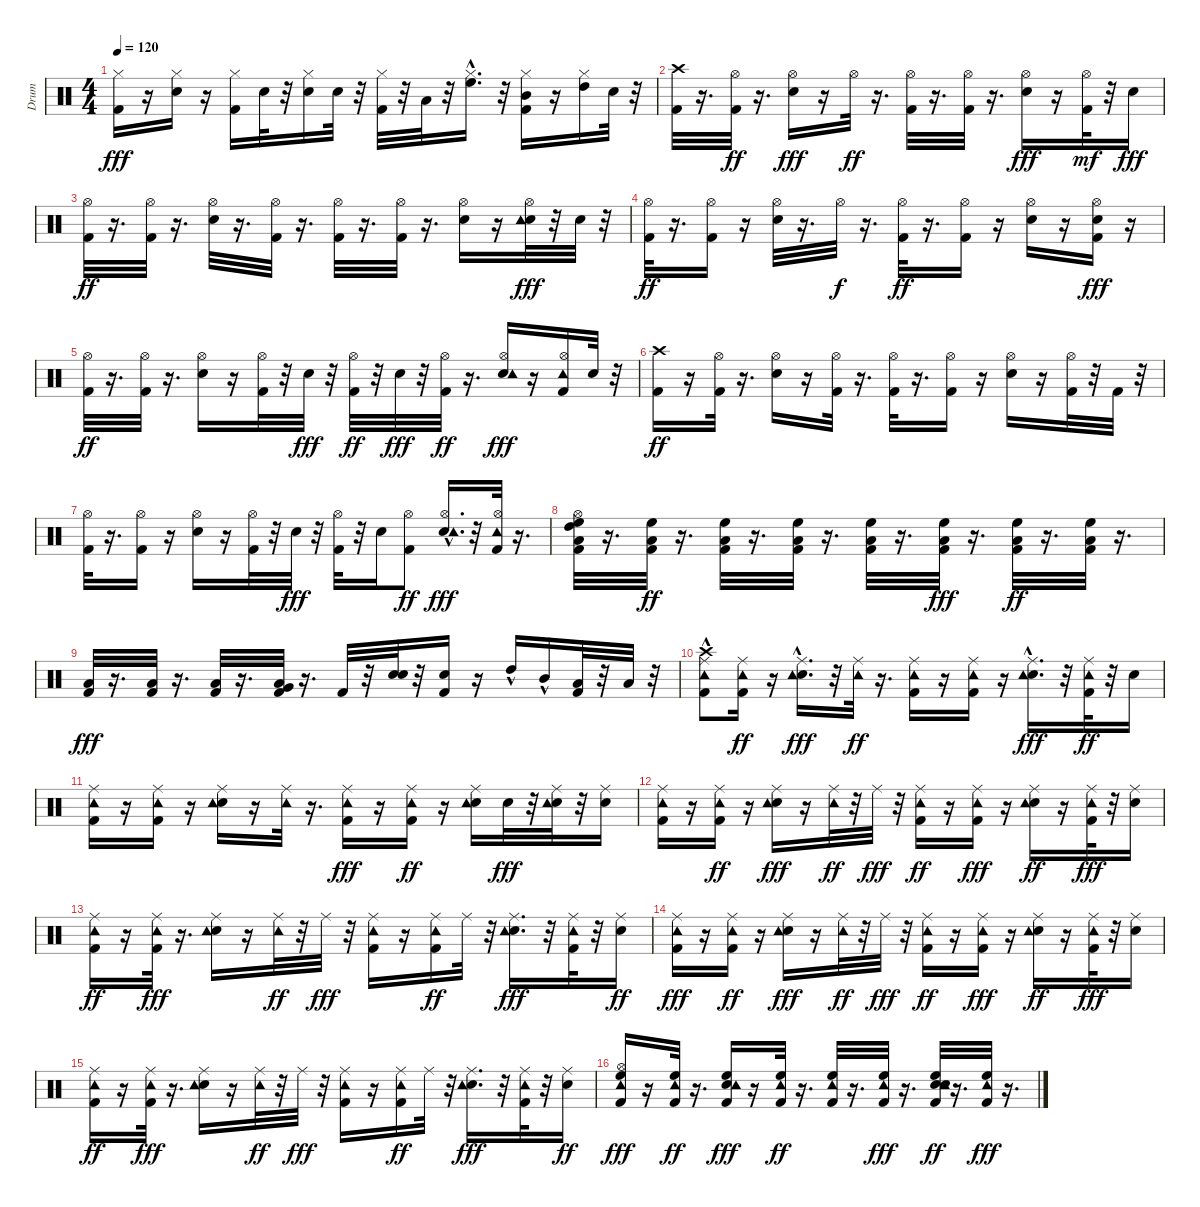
\track ("Drum" "Drum") {instrument percussion}
\staff {score}
\articulation defaults
\ts (4 4)
\tempo 120
\clef neutral
\ks c
("Kick (hit) 2" "Hi-Hat (closed)").16{dy fff} r.16 ("Electric Snare (hit)" "Hi-Hat (closed)").16 r.16 ("Kick (hit) 2" "Hi-Hat (closed)").16 "Electric Snare (hit)".32 r.32 ("Electric Snare (hit)" "Hi-Hat (closed)").16 "Electric Snare (hit)".32 r.32 ("Kick (hit) 2" "Hi-Hat (closed)").32 r.32 "Low Tom (hit)".32 r.32 ("Hi-Hat (closed)" "High Floor Tom (hit)"{hac}).16{d} r.32 ("Kick (hit) 2" "Hi-Hat (closed)" "Mid Tom (hit)").16 r.16 ("Hi-Hat (closed)" "High Tom (hit)").16 "Electric Snare (hit)".32 r.32 |
("Kick (hit) 2" "Crash high (hit)").32 r.16{d} ("Kick (hit) 2" "Hi-Hat (open)").32{dy ff} r.16{d} ("Electric Snare (hit)" "Hi-Hat (open)").16{dy fff} r.16 "Hi-Hat (open)".32{dy ff} r.16{d} ("Kick (hit) 2" "Hi-Hat (open)").32 r.16{d} ("Kick (hit) 2" "Hi-Hat (open)").32 r.16{d} ("Electric Snare (hit)" "Hi-Hat (open)").16{dy fff} r.16 ("Kick (hit) 2" "Hi-Hat (open)").32{dy mf} r.32 "Electric Snare (hit)".16{dy fff} |
("Kick (hit) 2" "Hi-Hat (open)").32{dy ff} r.16{d} ("Kick (hit) 2" "Hi-Hat (open)").32 r.16{d} ("Electric Snare (hit)" "Hi-Hat (open)").32 r.16{d} ("Kick (hit) 2" "Hi-Hat (open)").32 r.16{d} ("Kick (hit) 2" "Hi-Hat (open)").32 r.16{d} ("Kick (hit) 2" "Hi-Hat (open)").32 r.16{d} ("Electric Snare (hit)" "Hi-Hat (open)").16 r.16 ("Electric Snare (hit)" "Hi-Hat (open)" "Tambourine (hit)").32{dy fff} r.32 "Electric Snare (hit)".32 r.32 |
("Kick (hit) 2" "Hi-Hat (open)").32{dy ff} r.16{d} ("Kick (hit) 2" "Hi-Hat (open)").16 r.16 ("Electric Snare (hit)" "Hi-Hat (open)").32 r.16{d} "Hi-Hat (open)".32{dy f} r.16{d} ("Kick (hit) 2" "Hi-Hat (open)").32{dy ff} r.16{d} ("Kick (hit) 2" "Hi-Hat (open)").16 r.16 ("Electric Snare (hit)" "Hi-Hat (open)").16 r.16 ("Kick (hit) 2" "Electric Snare (hit)" "Hi-Hat (open)").16{dy fff} r.16 |
("Kick (hit) 2" "Hi-Hat (open)").32{dy ff} r.16{d} ("Kick (hit) 2" "Hi-Hat (open)").32 r.16{d} ("Electric Snare (hit)" "Hi-Hat (open)").16 r.16 ("Kick (hit) 2" "Hi-Hat (open)").32 r.32 "Electric Snare (hit)".32{dy fff} r.32 ("Kick (hit) 2" "Hi-Hat (open)").32{dy ff} r.32 "Electric Snare (hit)".32{dy fff} r.32 ("Kick (hit) 2" "Hi-Hat (open)").32{dy ff} r.16{d} ("Electric Snare (hit)" "Hi-Hat (open)" "Tambourine (hit)").16{dy fff} r.16 ("Kick (hit) 2" "Hi-Hat (open)" "Tambourine (hit)").16 "Electric Snare (hit)".32 r.32 |
("Kick (hit) 2" "Crash high (hit)").16{dy ff} r.16 ("Kick (hit) 2" "Hi-Hat (open)").32 r.16{d} ("Electric Snare (hit)" "Hi-Hat (open)").16 r.16 ("Kick (hit) 2" "Hi-Hat (open)").32 r.16{d} ("Kick (hit) 2" "Hi-Hat (open)").32 r.16{d} ("Kick (hit) 2" "Hi-Hat (open)").16 r.16 ("Electric Snare (hit)" "Hi-Hat (open)").16 r.16 ("Kick (hit) 2" "Hi-Hat (open)").32 r.32 "Kick (hit) 2".32 r.32 |
("Kick (hit) 2" "Hi-Hat (open)").32 r.16{d} ("Kick (hit) 2" "Hi-Hat (open)").16 r.16 ("Electric Snare (hit)" "Hi-Hat (open)").16 r.16 ("Kick (hit) 2" "Hi-Hat (open)").32 r.32 "Electric Snare (hit)".32{dy fff} r.32 ("Kick (hit) 2" "Hi-Hat (open)").32 r.32 "Electric Snare (hit)".16 ("Kick (hit) 2" "Hi-Hat (open)").8{dy ff} ("Electric Snare (hit)"{hac} "Hi-Hat (open)" "Tambourine (hit)").16{d dy fff} r.32 ("Kick (hit) 2" "Hi-Hat (open)" "Tambourine (hit)").32 r.16{d} |
("Kick (hit) 2" "Low Tom (hit)" "Hi-Hat (open)" "High Tom (hit)" "High Floor Tom (hit)").32 r.16{d} ("Kick (hit) 2" "Low Tom (hit)" "High Floor Tom (hit)").32{dy ff} r.16{d} ("Kick (hit) 2" "Low Tom (hit)" "High Floor Tom (hit)").32 r.16{d} ("Kick (hit) 2" "Low Tom (hit)" "High Floor Tom (hit)").32 r.16{d} ("Kick (hit) 2" "Low Tom (hit)" "High Floor Tom (hit)").32 r.16{d} ("Kick (hit) 2" "Low Tom (hit)" "High Floor Tom (hit)").32{dy fff} r.16{d} ("Kick (hit) 2" "Low Tom (hit)" "High Floor Tom (hit)").32{dy ff} r.16{d} ("Kick (hit) 2" "Low Tom (hit)" "High Floor Tom (hit)").32 r.16{d} |
("Kick (hit) 2" "Low Tom (hit)").32{dy fff} r.16{d} ("Kick (hit) 2" "Low Tom (hit)").32 r.16{d} ("Kick (hit) 2" "Low Tom (hit)").32 r.16{d} ("Kick (hit) 2" "Very Low Tom (hit)" "Low Tom (hit)").32 r.16{d} "Kick (hit) 2".32 r.32 ("Electric Snare (hit)" "Electric Snare (hit)").32 r.32 ("Kick (hit) 2" "Electric Snare (hit)").16 r.16 "High Tom (hit)"{hac}.16 "Mid Tom (hit)"{hac}.16 ("Kick (hit) 2" "Low Tom (hit)").32 r.32 "Low Tom (hit)".32 r.32 |
("Kick (hit) 2" "Crash high (hit)"{hac} "Ride (middle)" "Tambourine (hit)").8 ("Kick (hit) 2" "Ride (middle)" "Tambourine (hit)").16{dy ff} r.16 ("Electric Snare (hit)"{hac} "Ride (middle)" "Tambourine (hit)").16{d dy fff} r.32 ("Ride (middle)" "Tambourine (hit)").32{dy ff} r.16{d} ("Kick (hit) 2" "Ride (middle)" "Tambourine (hit)").16 r.16 ("Kick (hit) 2" "Ride (middle)" "Tambourine (hit)").16 r.16 ("Electric Snare (hit)"{hac} "Ride (middle)" "Tambourine (hit)").16{d dy fff} r.32 ("Kick (hit) 2" "Ride (middle)" "Tambourine (hit)").32{dy ff} r.32 "Electric Snare (hit)".16 |
("Kick (hit) 2" "Ride (middle)" "Tambourine (hit)").16 r.16 ("Kick (hit) 2" "Ride (middle)" "Tambourine (hit)").16 r.16 ("Electric Snare (hit)" "Ride (middle)" "Tambourine (hit)").16 r.16 ("Ride (middle)" "Tambourine (hit)").32 r.16{d} ("Kick (hit) 2" "Ride (middle)" "Tambourine (hit)").16{dy fff} r.16 ("Kick (hit) 2" "Ride (middle)" "Tambourine (hit)").16{dy ff} r.16 ("Electric Snare (hit)" "Ride (middle)" "Tambourine (hit)").16 "Electric Snare (hit)".32{dy fff} r.32 ("Electric Snare (hit)" "Ride (middle)" "Tambourine (hit)").32 r.32 ("Electric Snare (hit)" "Ride (middle)").16 |
("Kick (hit) 2" "Ride (middle)" "Tambourine (hit)").16 r.16 ("Kick (hit) 2" "Ride (middle)" "Tambourine (hit)").16{dy ff} r.16 ("Electric Snare (hit)" "Ride (middle)" "Tambourine (hit)").16{dy fff} r.16 ("Ride (middle)" "Tambourine (hit)").32{dy ff} r.32 "Ride (middle)".32{dy fff} r.32 ("Kick (hit) 2" "Ride (middle)" "Tambourine (hit)").16{dy ff} r.16 ("Kick (hit) 2" "Ride (middle)" "Tambourine (hit)").16{dy fff} r.16 ("Electric Snare (hit)" "Ride (middle)" "Tambourine (hit)").16{dy ff} r.16 ("Kick (hit) 2" "Ride (middle)" "Tambourine (hit)").32{dy fff} r.32 ("Electric Snare (hit)" "Ride (middle)").16 |
("Kick (hit) 2" "Ride (middle)" "Tambourine (hit)").16{dy ff} r.16 ("Kick (hit) 2" "Ride (middle)" "Tambourine (hit)").32{dy fff} r.16{d} ("Electric Snare (hit)" "Ride (middle)" "Tambourine (hit)").16 r.16 ("Ride (middle)" "Tambourine (hit)").32{dy ff} r.32 "Ride (middle)".32{dy fff} r.32 ("Kick (hit) 2" "Ride (middle)" "Tambourine (hit)").16 r.16 ("Kick (hit) 2" "Ride (middle)" "Tambourine (hit)").16{dy ff} "Ride (middle)".32 r.32 ("Electric Snare (hit)" "Ride (middle)" "Tambourine (hit)").16{d dy fff} r.32 ("Kick (hit) 2" "Ride (middle)" "Tambourine (hit)").32 r.32 ("Electric Snare (hit)" "Ride (middle)").16{dy ff} |
("Kick (hit) 2" "Ride (middle)" "Tambourine (hit)").16{dy fff} r.16 ("Kick (hit) 2" "Ride (middle)" "Tambourine (hit)").16{dy ff} r.16 ("Electric Snare (hit)" "Ride (middle)" "Tambourine (hit)").16{dy fff} r.16 ("Ride (middle)" "Tambourine (hit)").32{dy ff} r.32 "Ride (middle)".32{dy fff} r.32 ("Kick (hit) 2" "Ride (middle)" "Tambourine (hit)").16{dy ff} r.16 ("Kick (hit) 2" "Ride (middle)" "Tambourine (hit)").16{dy fff} r.16 ("Electric Snare (hit)" "Ride (middle)" "Tambourine (hit)").16{dy ff} r.16 ("Kick (hit) 2" "Ride (middle)" "Tambourine (hit)").32{dy fff} r.32 ("Electric Snare (hit)" "Ride (middle)").16 |
("Kick (hit) 2" "Ride (middle)" "Tambourine (hit)").16{dy ff} r.16 ("Kick (hit) 2" "Ride (middle)" "Tambourine (hit)").32{dy fff} r.16{d} ("Electric Snare (hit)" "Ride (middle)" "Tambourine (hit)").16 r.16 ("Ride (middle)" "Tambourine (hit)").32{dy ff} r.32 "Ride (middle)".32{dy fff} r.32 ("Kick (hit) 2" "Ride (middle)" "Tambourine (hit)").16 r.16 ("Kick (hit) 2" "Ride (middle)" "Tambourine (hit)").16{dy ff} "Ride (middle)".32 r.32 ("Electric Snare (hit)" "Ride (middle)" "Tambourine (hit)").16{d dy fff} r.32 ("Kick (hit) 2" "Ride (middle)" "Tambourine (hit)").32 r.32 ("Electric Snare (hit)" "Ride (middle)").16{dy ff} |
("Kick (hit) 2" "Hi-Hat (open)" "High Floor Tom (hit)" "Tambourine (hit)").16{dy fff} r.16 ("Kick (hit) 2" "High Floor Tom (hit)" "Tambourine (hit)").32{dy ff} r.16{d} ("Kick (hit) 2" "Electric Snare (hit)" "High Floor Tom (hit)" "Tambourine (hit)").16{dy fff} r.16 ("Kick (hit) 2" "High Floor Tom (hit)" "Tambourine (hit)").32{dy ff} r.16{d} ("Kick (hit) 2" "High Floor Tom (hit)" "Tambourine (hit)").32 r.16{d} ("Kick (hit) 2" "High Floor Tom (hit)" "Tambourine (hit)").32{dy fff} r.16{d} ("Kick (hit) 2" "Snare (hit) 2" "Electric Snare (hit)" "High Floor Tom (hit)" "Tambourine (hit)").32{dy ff} r.16{d} ("Kick (hit) 2" "High Floor Tom (hit)" "Tambourine (hit)").32{dy fff} r.16{d}
